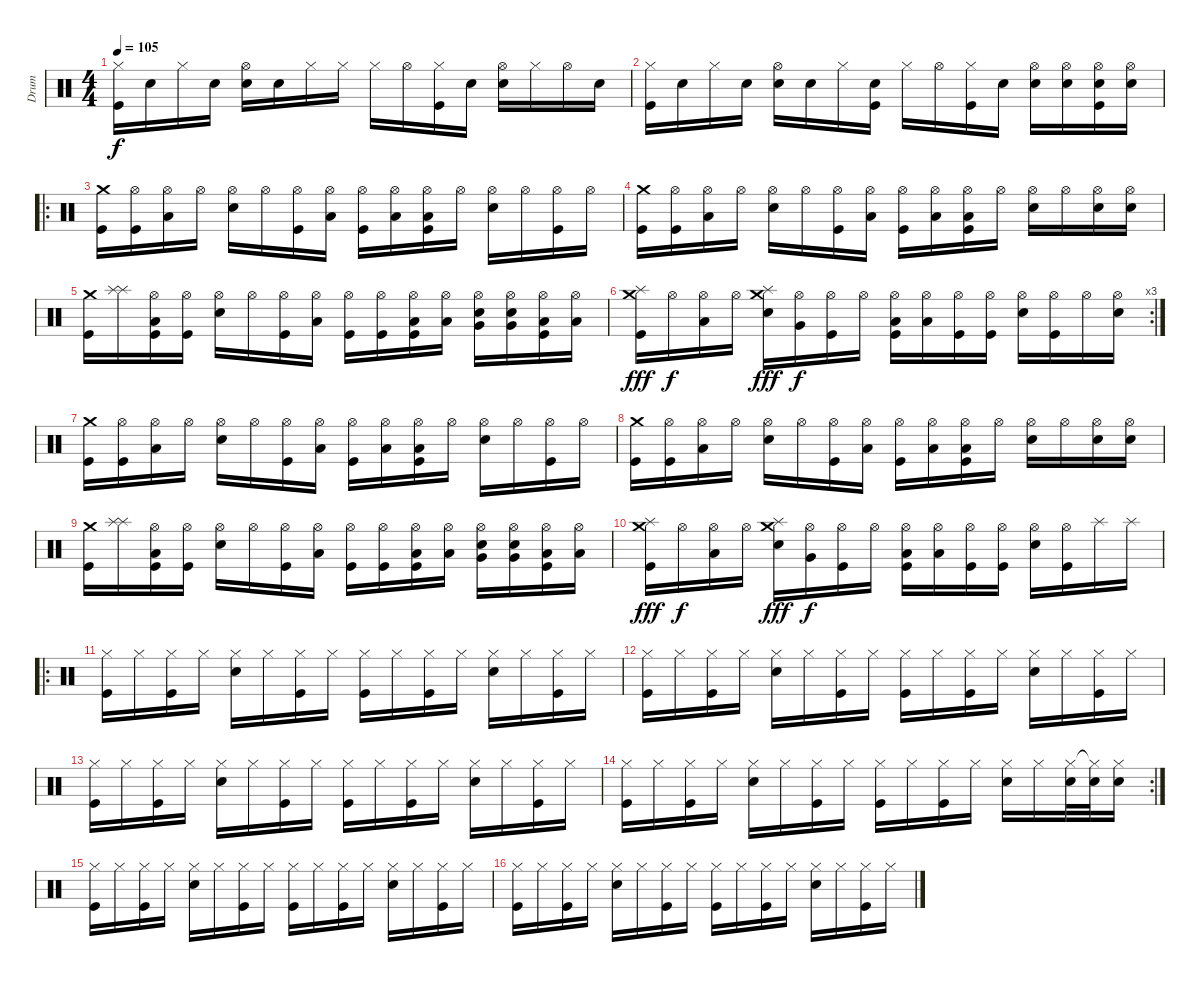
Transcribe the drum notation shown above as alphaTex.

\track ("Drum" "Drum") {instrument percussion}
\staff {score}
\articulation defaults
\ts (4 4)
\tempo 105
\clef neutral
\ks c
("Hi-Hat (closed)" "Kick (hit)").16{dy f} "Snare (hit)".16 "Hi-Hat (closed)".16 "Snare (hit)".16 ("Hi-Hat (open)" "Snare (hit) 2").16 "Snare (hit)".16 "Hi-Hat (closed)".16 "Hi-Hat (closed)".16 "Hi-Hat (closed)".16 "Hi-Hat (open)".16 ("Hi-Hat (closed)" "Kick (hit)").16 "Snare (hit)".16 ("Hi-Hat (open)" "Snare (hit) 2").16 "Hi-Hat (closed)".16 "Hi-Hat (open)".16 "Snare (hit)".16 |
("Hi-Hat (closed)" "Kick (hit)").16 "Snare (hit)".16 "Hi-Hat (closed)".16 "Snare (hit)".16 ("Hi-Hat (open)" "Snare (hit) 2").16 "Snare (hit)".16 "Hi-Hat (closed)".16 ("Snare (hit)" "Kick (hit)").16 "Hi-Hat (closed)".16 "Hi-Hat (open)".16 ("Hi-Hat (closed)" "Kick (hit)").16 "Snare (hit)".16 ("Hi-Hat (open)" "Snare (hit) 2").16 ("Hi-Hat (open)" "Snare (hit) 2").16 ("Hi-Hat (open)" "Snare (hit) 2" "Kick (hit)").16 ("Hi-Hat (open)" "Snare (hit) 2").16 |
\ro
("Crash medium (hit)" "Kick (hit)").16{volume 16} ("Hi-Hat (open)" "Kick (hit)").16 ("Hi-Hat (open)" "Low Floor Tom (hit)").16 "Hi-Hat (open)".16 ("Hi-Hat (open)" "Snare (hit) 2").16 "Hi-Hat (open)".16 ("Hi-Hat (open)" "Kick (hit)").16 ("Hi-Hat (open)" "Low Tom (hit)").16 ("Hi-Hat (open)" "Kick (hit)").16 ("Hi-Hat (open)" "Low Tom (hit)").16 ("Hi-Hat (open)" "Low Tom (hit)" "Kick (hit)").16 "Hi-Hat (open)".16 ("Hi-Hat (open)" "Snare (hit) 2").16 "Hi-Hat (open)".16 ("Hi-Hat (open)" "Kick (hit)").16 "Hi-Hat (open)".16 |
("Crash medium (hit)" "Kick (hit)").16 ("Hi-Hat (open)" "Kick (hit)").16 ("Hi-Hat (open)" "Low Floor Tom (hit)").16 "Hi-Hat (open)".16 ("Hi-Hat (open)" "Snare (hit) 2").16 "Hi-Hat (open)".16 ("Hi-Hat (open)" "Kick (hit)").16 ("Hi-Hat (open)" "Low Tom (hit)").16 ("Hi-Hat (open)" "Kick (hit)").16 ("Hi-Hat (open)" "Low Tom (hit)").16 ("Hi-Hat (open)" "Low Tom (hit)" "Kick (hit)").16 "Hi-Hat (open)".16 ("Hi-Hat (open)" "Snare (hit) 2").16 "Hi-Hat (open)".16 ("Hi-Hat (open)" "Snare (hit) 2").16 ("Hi-Hat (open)" "Snare (hit) 2").16 |
("Crash medium (hit)" "Kick (hit)").16 ("Splash (hit)" "Splash (hit)").16 ("Hi-Hat (open)" "Low Floor Tom (hit)" "Kick (hit)").16 ("Hi-Hat (open)" "Kick (hit)").16 ("Hi-Hat (open)" "Snare (hit) 2").16 "Hi-Hat (open)".16 ("Hi-Hat (open)" "Kick (hit)").16 ("Hi-Hat (open)" "Low Tom (hit)").16 ("Hi-Hat (open)" "Kick (hit)").16 ("Hi-Hat (open)" "Kick (hit)").16 ("Hi-Hat (open)" "Low Tom (hit)" "Kick (hit)").16 ("Hi-Hat (open)" "Low Tom (hit)").16 ("Hi-Hat (open)" "Very Low Tom (hit)" "Electric Snare (hit)").16 ("Hi-Hat (open)" "Very Low Tom (hit)" "Electric Snare (hit)").16 ("Hi-Hat (open)" "Low Floor Tom (hit)" "Kick (hit)").16 ("Hi-Hat (open)" "Low Floor Tom (hit)").16 |
\rc 3
("Crash medium (hit)" "Splash (hit)" "Kick (hit)").16{dy fff} "Hi-Hat (open)".16{dy f} ("Hi-Hat (open)" "Low Tom (hit)").16 "Hi-Hat (open)".16 ("Crash medium (hit)" "Splash (hit)" "Snare (hit) 2").16{dy fff} ("Hi-Hat (open)" "Very Low Tom (hit)").16{dy f} ("Hi-Hat (open)" "Kick (hit)").16 "Hi-Hat (open)".16 ("Hi-Hat (open)" "Low Floor Tom (hit)" "Kick (hit)").16 ("Hi-Hat (open)" "Low Floor Tom (hit)").16 ("Hi-Hat (open)" "Kick (hit)").16 ("Hi-Hat (open)" "Kick (hit)").16 ("Hi-Hat (open)" "Snare (hit) 2").16 ("Hi-Hat (open)" "Kick (hit)").16 "Hi-Hat (open)".16 ("Hi-Hat (open)" "Snare (hit) 2").16 |
("Crash medium (hit)" "Kick (hit)").16{volume 16} ("Hi-Hat (open)" "Kick (hit)").16 ("Hi-Hat (open)" "Low Floor Tom (hit)").16 "Hi-Hat (open)".16 ("Hi-Hat (open)" "Snare (hit) 2").16 "Hi-Hat (open)".16 ("Hi-Hat (open)" "Kick (hit)").16 ("Hi-Hat (open)" "Low Tom (hit)").16 ("Hi-Hat (open)" "Kick (hit)").16 ("Hi-Hat (open)" "Low Tom (hit)").16 ("Hi-Hat (open)" "Low Tom (hit)" "Kick (hit)").16 "Hi-Hat (open)".16 ("Hi-Hat (open)" "Snare (hit) 2").16 "Hi-Hat (open)".16 ("Hi-Hat (open)" "Kick (hit)").16 "Hi-Hat (open)".16 |
("Crash medium (hit)" "Kick (hit)").16 ("Hi-Hat (open)" "Kick (hit)").16 ("Hi-Hat (open)" "Low Floor Tom (hit)").16 "Hi-Hat (open)".16 ("Hi-Hat (open)" "Snare (hit) 2").16 "Hi-Hat (open)".16 ("Hi-Hat (open)" "Kick (hit)").16 ("Hi-Hat (open)" "Low Tom (hit)").16 ("Hi-Hat (open)" "Kick (hit)").16 ("Hi-Hat (open)" "Low Tom (hit)").16 ("Hi-Hat (open)" "Low Tom (hit)" "Kick (hit)").16 "Hi-Hat (open)".16 ("Hi-Hat (open)" "Snare (hit) 2").16 "Hi-Hat (open)".16 ("Hi-Hat (open)" "Snare (hit) 2").16 ("Hi-Hat (open)" "Snare (hit) 2").16 |
("Crash medium (hit)" "Kick (hit)").16 ("Splash (hit)" "Splash (hit)").16 ("Hi-Hat (open)" "Low Floor Tom (hit)" "Kick (hit)").16 ("Hi-Hat (open)" "Kick (hit)").16 ("Hi-Hat (open)" "Snare (hit) 2").16 "Hi-Hat (open)".16 ("Hi-Hat (open)" "Kick (hit)").16 ("Hi-Hat (open)" "Low Tom (hit)").16 ("Hi-Hat (open)" "Kick (hit)").16 ("Hi-Hat (open)" "Kick (hit)").16 ("Hi-Hat (open)" "Low Tom (hit)" "Kick (hit)").16 ("Hi-Hat (open)" "Low Tom (hit)").16 ("Hi-Hat (open)" "Very Low Tom (hit)" "Electric Snare (hit)").16 ("Hi-Hat (open)" "Very Low Tom (hit)" "Electric Snare (hit)").16 ("Hi-Hat (open)" "Low Floor Tom (hit)" "Kick (hit)").16 ("Hi-Hat (open)" "Low Floor Tom (hit)").16 |
("Crash medium (hit)" "Splash (hit)" "Kick (hit)").16{dy fff} "Hi-Hat (open)".16{dy f} ("Hi-Hat (open)" "Low Tom (hit)").16 "Hi-Hat (open)".16 ("Crash medium (hit)" "Splash (hit)" "Snare (hit) 2").16{dy fff} ("Hi-Hat (open)" "Very Low Tom (hit)").16{dy f} ("Hi-Hat (open)" "Kick (hit)").16 "Hi-Hat (open)".16 ("Hi-Hat (open)" "Low Floor Tom (hit)" "Kick (hit)").16 ("Hi-Hat (open)" "Low Floor Tom (hit)").16 ("Hi-Hat (open)" "Kick (hit)").16 ("Hi-Hat (open)" "Kick (hit)").16 ("Hi-Hat (open)" "Snare (hit) 2").16 ("Hi-Hat (open)" "Kick (hit)").16 "Splash (hit)".16 "Splash (hit)".16 |
\ro
("Hi-Hat (closed)" "Kick (hit)").16 "Hi-Hat (closed)".16 ("Hi-Hat (closed)" "Kick (hit)").16 "Hi-Hat (closed)".16 ("Hi-Hat (closed)" "Snare (hit) 2").16 "Hi-Hat (closed)".16 ("Hi-Hat (closed)" "Kick (hit)").16 "Hi-Hat (closed)".16 ("Hi-Hat (closed)" "Kick (hit)").16 "Hi-Hat (closed)".16 ("Hi-Hat (closed)" "Kick (hit)").16 "Hi-Hat (closed)".16 ("Hi-Hat (closed)" "Snare (hit) 2").16 "Hi-Hat (closed)".16 ("Hi-Hat (closed)" "Kick (hit)").16 "Hi-Hat (closed)".16 |
("Hi-Hat (closed)" "Kick (hit)").16 "Hi-Hat (closed)".16 ("Hi-Hat (closed)" "Kick (hit)").16 "Hi-Hat (closed)".16 ("Hi-Hat (closed)" "Snare (hit) 2").16 "Hi-Hat (closed)".16 ("Hi-Hat (closed)" "Kick (hit)").16 "Hi-Hat (closed)".16 ("Hi-Hat (closed)" "Kick (hit)").16 "Hi-Hat (closed)".16 ("Hi-Hat (closed)" "Kick (hit)").16 "Hi-Hat (closed)".16 ("Hi-Hat (closed)" "Snare (hit) 2").16 "Hi-Hat (closed)".16 ("Hi-Hat (closed)" "Kick (hit)").16 "Hi-Hat (closed)".16 |
("Hi-Hat (closed)" "Kick (hit)").16 "Hi-Hat (closed)".16 ("Hi-Hat (closed)" "Kick (hit)").16 "Hi-Hat (closed)".16 ("Hi-Hat (closed)" "Snare (hit) 2").16 "Hi-Hat (closed)".16 ("Hi-Hat (closed)" "Kick (hit)").16 "Hi-Hat (closed)".16 ("Hi-Hat (closed)" "Kick (hit)").16 "Hi-Hat (closed)".16 ("Hi-Hat (closed)" "Kick (hit)").16 "Hi-Hat (closed)".16 ("Hi-Hat (closed)" "Snare (hit) 2").16 "Hi-Hat (closed)".16 ("Hi-Hat (closed)" "Kick (hit)").16 "Hi-Hat (closed)".16 |
\rc 2
("Hi-Hat (closed)" "Kick (hit)").16 "Hi-Hat (closed)".16 ("Hi-Hat (closed)" "Kick (hit)").16 "Hi-Hat (closed)".16 ("Hi-Hat (closed)" "Snare (hit) 2").16 "Hi-Hat (closed)".16 ("Hi-Hat (closed)" "Kick (hit)").16 "Hi-Hat (closed)".16 ("Hi-Hat (closed)" "Kick (hit)").16 "Hi-Hat (closed)".16 ("Hi-Hat (closed)" "Kick (hit)").16 "Hi-Hat (closed)".16 ("Hi-Hat (closed)" "Snare (hit) 2").16 "Hi-Hat (closed)".16 ("Hi-Hat (closed)" "Snare (hit) 2").32 ("Hi-Hat (closed)"{t} "Snare (hit) 2").32 ("Hi-Hat (closed)" "Snare (hit) 2").16 |
("Hi-Hat (closed)" "Kick (hit)").16 "Hi-Hat (closed)".16 ("Hi-Hat (closed)" "Kick (hit)").16 "Hi-Hat (closed)".16 ("Hi-Hat (closed)" "Snare (hit) 2").16 "Hi-Hat (closed)".16 ("Hi-Hat (closed)" "Kick (hit)").16 "Hi-Hat (closed)".16 ("Hi-Hat (closed)" "Kick (hit)").16 "Hi-Hat (closed)".16 ("Hi-Hat (closed)" "Kick (hit)").16 "Hi-Hat (closed)".16 ("Hi-Hat (closed)" "Snare (hit) 2").16 "Hi-Hat (closed)".16 ("Hi-Hat (closed)" "Kick (hit)").16 "Hi-Hat (closed)".16 |
("Hi-Hat (closed)" "Kick (hit)").16 "Hi-Hat (closed)".16 ("Hi-Hat (closed)" "Kick (hit)").16 "Hi-Hat (closed)".16 ("Hi-Hat (closed)" "Snare (hit) 2").16 "Hi-Hat (closed)".16 ("Hi-Hat (closed)" "Kick (hit)").16 "Hi-Hat (closed)".16 ("Hi-Hat (closed)" "Kick (hit)").16 "Hi-Hat (closed)".16 ("Hi-Hat (closed)" "Kick (hit)").16 "Hi-Hat (closed)".16 ("Hi-Hat (closed)" "Snare (hit) 2").16 "Hi-Hat (closed)".16 ("Hi-Hat (closed)" "Kick (hit)").16 "Hi-Hat (closed)".16
